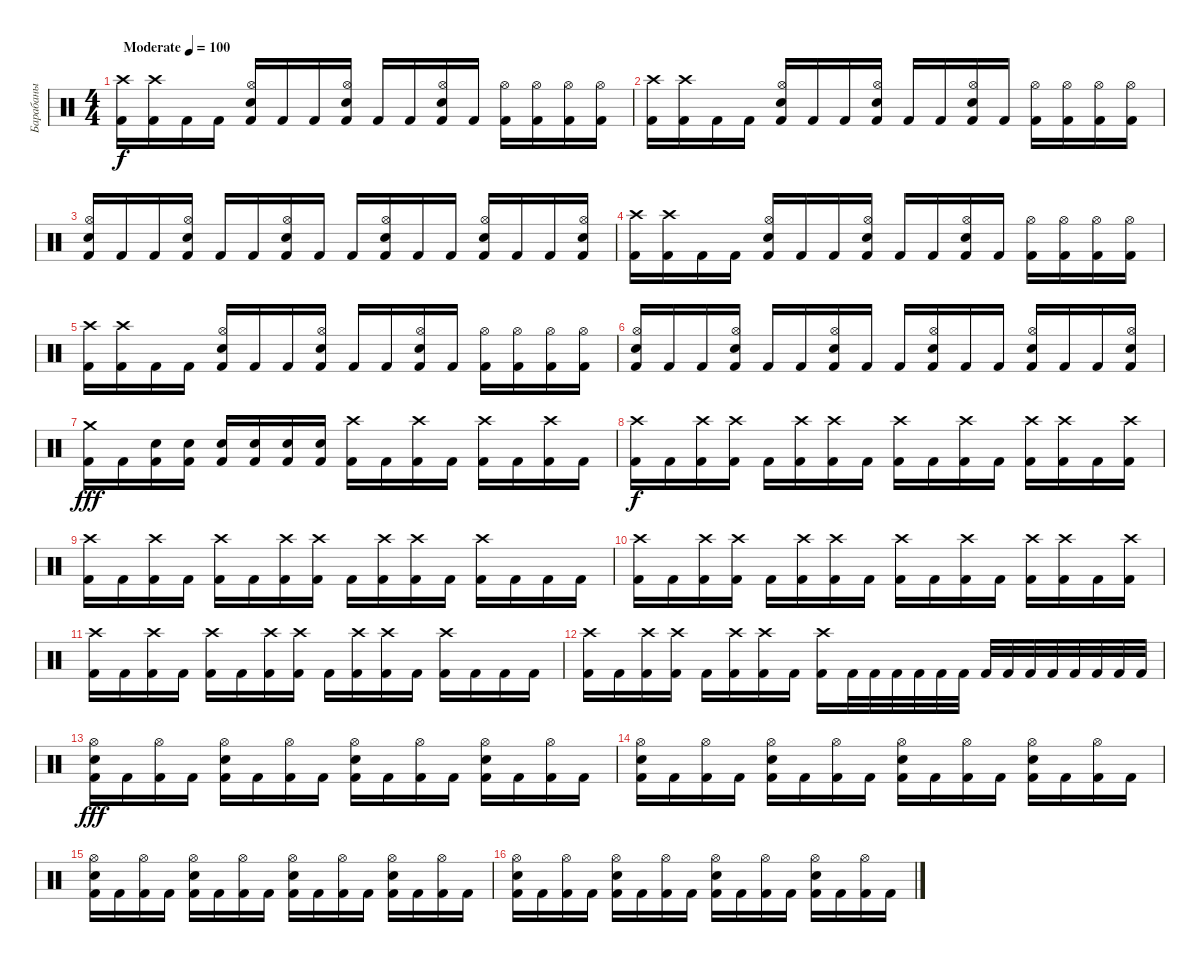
\track ("Барабаны" "Барабаны") {instrument percussion}
\staff {score}
\articulation defaults
\ts (4 4)
\tempo (100 "Moderate")
\clef neutral
\ks c
("Crash high (hit)" "Kick (hit) 2").16{dy f} ("Crash high (hit)" "Kick (hit) 2").16 "Kick (hit) 2".16 "Kick (hit) 2".16 ("Hi-Hat (open)" "Electric Snare (hit)" "Kick (hit) 2").16 "Kick (hit) 2".16 "Kick (hit) 2".16 ("Hi-Hat (open)" "Electric Snare (hit)" "Kick (hit) 2").16 "Kick (hit) 2".16 "Kick (hit) 2".16 ("Hi-Hat (open)" "Electric Snare (hit)" "Kick (hit) 2").16 "Kick (hit) 2".16 ("Hi-Hat (open)" "Kick (hit) 2").16 ("Hi-Hat (open)" "Kick (hit) 2").16 ("Hi-Hat (open)" "Kick (hit) 2").16 ("Hi-Hat (open)" "Kick (hit) 2").16 |
("Crash high (hit)" "Kick (hit) 2").16 ("Crash high (hit)" "Kick (hit) 2").16 "Kick (hit) 2".16 "Kick (hit) 2".16 ("Hi-Hat (open)" "Electric Snare (hit)" "Kick (hit) 2").16 "Kick (hit) 2".16 "Kick (hit) 2".16 ("Hi-Hat (open)" "Electric Snare (hit)" "Kick (hit) 2").16 "Kick (hit) 2".16 "Kick (hit) 2".16 ("Hi-Hat (open)" "Electric Snare (hit)" "Kick (hit) 2").16 "Kick (hit) 2".16 ("Hi-Hat (open)" "Kick (hit) 2").16 ("Hi-Hat (open)" "Kick (hit) 2").16 ("Hi-Hat (open)" "Kick (hit) 2").16 ("Hi-Hat (open)" "Kick (hit) 2").16 |
("Hi-Hat (open)" "Electric Snare (hit)" "Kick (hit) 2").16 "Kick (hit) 2".16 "Kick (hit) 2".16 ("Hi-Hat (open)" "Electric Snare (hit)" "Kick (hit) 2").16 "Kick (hit) 2".16 "Kick (hit) 2".16 ("Hi-Hat (open)" "Electric Snare (hit)" "Kick (hit) 2").16 "Kick (hit) 2".16 "Kick (hit) 2".16 ("Hi-Hat (open)" "Electric Snare (hit)" "Kick (hit) 2").16 "Kick (hit) 2".16 "Kick (hit) 2".16 ("Hi-Hat (open)" "Electric Snare (hit)" "Kick (hit) 2").16 "Kick (hit) 2".16 "Kick (hit) 2".16 ("Hi-Hat (open)" "Electric Snare (hit)" "Kick (hit) 2").16 |
("Crash high (hit)" "Kick (hit) 2").16 ("Crash high (hit)" "Kick (hit) 2").16 "Kick (hit) 2".16 "Kick (hit) 2".16 ("Hi-Hat (open)" "Electric Snare (hit)" "Kick (hit) 2").16 "Kick (hit) 2".16 "Kick (hit) 2".16 ("Hi-Hat (open)" "Electric Snare (hit)" "Kick (hit) 2").16 "Kick (hit) 2".16 "Kick (hit) 2".16 ("Hi-Hat (open)" "Electric Snare (hit)" "Kick (hit) 2").16 "Kick (hit) 2".16 ("Hi-Hat (open)" "Kick (hit) 2").16 ("Hi-Hat (open)" "Kick (hit) 2").16 ("Hi-Hat (open)" "Kick (hit) 2").16 ("Hi-Hat (open)" "Kick (hit) 2").16 |
("Crash high (hit)" "Kick (hit) 2").16 ("Crash high (hit)" "Kick (hit) 2").16 "Kick (hit) 2".16 "Kick (hit) 2".16 ("Hi-Hat (open)" "Electric Snare (hit)" "Kick (hit) 2").16 "Kick (hit) 2".16 "Kick (hit) 2".16 ("Hi-Hat (open)" "Electric Snare (hit)" "Kick (hit) 2").16 "Kick (hit) 2".16 "Kick (hit) 2".16 ("Hi-Hat (open)" "Electric Snare (hit)" "Kick (hit) 2").16 "Kick (hit) 2".16 ("Hi-Hat (open)" "Kick (hit) 2").16 ("Hi-Hat (open)" "Kick (hit) 2").16 ("Hi-Hat (open)" "Kick (hit) 2").16 ("Hi-Hat (open)" "Kick (hit) 2").16 |
("Hi-Hat (open)" "Electric Snare (hit)" "Kick (hit) 2").16 "Kick (hit) 2".16 "Kick (hit) 2".16 ("Hi-Hat (open)" "Electric Snare (hit)" "Kick (hit) 2").16 "Kick (hit) 2".16 "Kick (hit) 2".16 ("Hi-Hat (open)" "Electric Snare (hit)" "Kick (hit) 2").16 "Kick (hit) 2".16 "Kick (hit) 2".16 ("Hi-Hat (open)" "Electric Snare (hit)" "Kick (hit) 2").16 "Kick (hit) 2".16 "Kick (hit) 2".16 ("Hi-Hat (open)" "Electric Snare (hit)" "Kick (hit) 2").16 "Kick (hit) 2".16 "Kick (hit) 2".16 ("Hi-Hat (open)" "Electric Snare (hit)" "Kick (hit) 2").16 |
("Crash medium (hit)" "Kick (hit) 2").16{dy fff} "Kick (hit) 2".16 ("Electric Snare (hit)" "Kick (hit) 2").16 ("Electric Snare (hit)" "Kick (hit) 2").16 ("Electric Snare (hit)" "Kick (hit) 2").16 ("Electric Snare (hit)" "Kick (hit) 2").16 ("Electric Snare (hit)" "Kick (hit) 2").16 ("Electric Snare (hit)" "Kick (hit) 2").16 ("Crash high (hit)" "Kick (hit) 2").16 "Kick (hit) 2".16 ("Crash high (hit)" "Kick (hit) 2").16 "Kick (hit) 2".16 ("Crash high (hit)" "Kick (hit) 2").16 "Kick (hit) 2".16 ("Crash high (hit)" "Kick (hit) 2").16 "Kick (hit) 2".16 |
("Crash high (hit)" "Kick (hit) 2").16{dy f} "Kick (hit) 2".16 ("Crash high (hit)" "Kick (hit) 2").16 ("Crash high (hit)" "Kick (hit) 2").16 "Kick (hit) 2".16 ("Crash high (hit)" "Kick (hit) 2").16 ("Crash high (hit)" "Kick (hit) 2").16 "Kick (hit) 2".16 ("Crash high (hit)" "Kick (hit) 2").16 "Kick (hit) 2".16 ("Crash high (hit)" "Kick (hit) 2").16 "Kick (hit) 2".16 ("Crash high (hit)" "Kick (hit) 2").16 ("Crash high (hit)" "Kick (hit) 2").16 "Kick (hit) 2".16 ("Crash high (hit)" "Kick (hit) 2").16 |
("Crash high (hit)" "Kick (hit) 2").16 "Kick (hit) 2".16 ("Crash high (hit)" "Kick (hit) 2").16 "Kick (hit) 2".16 ("Crash high (hit)" "Kick (hit) 2").16 "Kick (hit) 2".16 ("Crash high (hit)" "Kick (hit) 2").16 ("Crash high (hit)" "Kick (hit) 2").16 "Kick (hit) 2".16 ("Crash high (hit)" "Kick (hit) 2").16 ("Crash high (hit)" "Kick (hit) 2").16 "Kick (hit) 2".16 ("Crash high (hit)" "Kick (hit) 2").16 "Kick (hit) 2".16 "Kick (hit) 2".16 "Kick (hit) 2".16 |
("Crash high (hit)" "Kick (hit) 2").16 "Kick (hit) 2".16 ("Crash high (hit)" "Kick (hit) 2").16 ("Crash high (hit)" "Kick (hit) 2").16 "Kick (hit) 2".16 ("Crash high (hit)" "Kick (hit) 2").16 ("Crash high (hit)" "Kick (hit) 2").16 "Kick (hit) 2".16 ("Crash high (hit)" "Kick (hit) 2").16 "Kick (hit) 2".16 ("Crash high (hit)" "Kick (hit) 2").16 "Kick (hit) 2".16 ("Crash high (hit)" "Kick (hit) 2").16 ("Crash high (hit)" "Kick (hit) 2").16 "Kick (hit) 2".16 ("Crash high (hit)" "Kick (hit) 2").16 |
("Crash high (hit)" "Kick (hit) 2").16 "Kick (hit) 2".16 ("Crash high (hit)" "Kick (hit) 2").16 "Kick (hit) 2".16 ("Crash high (hit)" "Kick (hit) 2").16 "Kick (hit) 2".16 ("Crash high (hit)" "Kick (hit) 2").16 ("Crash high (hit)" "Kick (hit) 2").16 "Kick (hit) 2".16 ("Crash high (hit)" "Kick (hit) 2").16 ("Crash high (hit)" "Kick (hit) 2").16 "Kick (hit) 2".16 ("Crash high (hit)" "Kick (hit) 2").16 "Kick (hit) 2".16 "Kick (hit) 2".16 "Kick (hit) 2".16 |
("Crash high (hit)" "Kick (hit) 2").16 "Kick (hit) 2".16 ("Crash high (hit)" "Kick (hit) 2").16 ("Crash high (hit)" "Kick (hit) 2").16 "Kick (hit) 2".16 ("Crash high (hit)" "Kick (hit) 2").16 ("Crash high (hit)" "Kick (hit) 2").16 "Kick (hit) 2".16 ("Crash high (hit)" "Kick (hit) 2").16 "Kick (hit) 2".32 "Kick (hit) 2".32 "Kick (hit) 2".32 "Kick (hit) 2".32 "Kick (hit) 2".32 "Kick (hit) 2".32 "Kick (hit) 2".32 "Kick (hit) 2".32 "Kick (hit) 2".32 "Kick (hit) 2".32 "Kick (hit) 2".32 "Kick (hit) 2".32 "Kick (hit) 2".32 "Kick (hit) 2".32 |
("Hi-Hat (open)" "Electric Snare (hit)" "Kick (hit) 2").16{dy fff} "Kick (hit) 2".16 ("Hi-Hat (open)" "Kick (hit) 2").16 "Kick (hit) 2".16 ("Hi-Hat (open)" "Electric Snare (hit)" "Kick (hit) 2").16 "Kick (hit) 2".16 ("Hi-Hat (open)" "Kick (hit) 2").16 "Kick (hit) 2".16 ("Hi-Hat (open)" "Electric Snare (hit)" "Kick (hit) 2").16 "Kick (hit) 2".16 ("Hi-Hat (open)" "Kick (hit) 2").16 "Kick (hit) 2".16 ("Hi-Hat (open)" "Electric Snare (hit)" "Kick (hit) 2").16 "Kick (hit) 2".16 ("Hi-Hat (open)" "Kick (hit) 2").16 "Kick (hit) 2".16 |
("Hi-Hat (open)" "Electric Snare (hit)" "Kick (hit) 2").16 "Kick (hit) 2".16 ("Hi-Hat (open)" "Kick (hit) 2").16 "Kick (hit) 2".16 ("Hi-Hat (open)" "Electric Snare (hit)" "Kick (hit) 2").16 "Kick (hit) 2".16 ("Hi-Hat (open)" "Kick (hit) 2").16 "Kick (hit) 2".16 ("Hi-Hat (open)" "Electric Snare (hit)" "Kick (hit) 2").16 "Kick (hit) 2".16 ("Hi-Hat (open)" "Kick (hit) 2").16 "Kick (hit) 2".16 ("Hi-Hat (open)" "Electric Snare (hit)" "Kick (hit) 2").16 "Kick (hit) 2".16 ("Hi-Hat (open)" "Kick (hit) 2").16 "Kick (hit) 2".16 |
("Hi-Hat (open)" "Electric Snare (hit)" "Kick (hit) 2").16 "Kick (hit) 2".16 ("Hi-Hat (open)" "Kick (hit) 2").16 "Kick (hit) 2".16 ("Hi-Hat (open)" "Electric Snare (hit)" "Kick (hit) 2").16 "Kick (hit) 2".16 ("Hi-Hat (open)" "Kick (hit) 2").16 "Kick (hit) 2".16 ("Hi-Hat (open)" "Electric Snare (hit)" "Kick (hit) 2").16 "Kick (hit) 2".16 ("Hi-Hat (open)" "Kick (hit) 2").16 "Kick (hit) 2".16 ("Hi-Hat (open)" "Electric Snare (hit)" "Kick (hit) 2").16 "Kick (hit) 2".16 ("Hi-Hat (open)" "Kick (hit) 2").16 "Kick (hit) 2".16 |
("Hi-Hat (open)" "Electric Snare (hit)" "Kick (hit) 2").16 "Kick (hit) 2".16 ("Hi-Hat (open)" "Kick (hit) 2").16 "Kick (hit) 2".16 ("Hi-Hat (open)" "Electric Snare (hit)" "Kick (hit) 2").16 "Kick (hit) 2".16 ("Hi-Hat (open)" "Kick (hit) 2").16 "Kick (hit) 2".16 ("Hi-Hat (open)" "Electric Snare (hit)" "Kick (hit) 2").16 "Kick (hit) 2".16 ("Hi-Hat (open)" "Kick (hit) 2").16 "Kick (hit) 2".16 ("Hi-Hat (open)" "Electric Snare (hit)" "Kick (hit) 2").16 "Kick (hit) 2".16 ("Hi-Hat (open)" "Kick (hit) 2").16 "Kick (hit) 2".16
